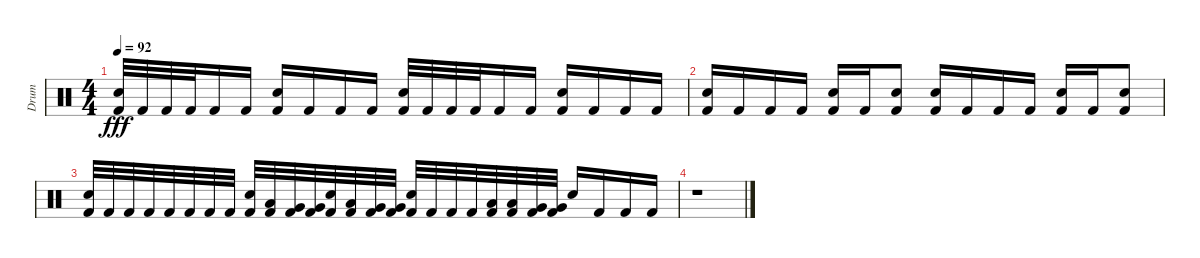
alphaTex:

\track ("Drum" "Drum") {instrument percussion}
\staff {score}
\articulation defaults
\ts (4 4)
\tempo 92
\clef neutral
\ks c
("Electric Snare (hit)" "Kick (hit) 2").32{dy fff} "Kick (hit) 2".32 "Kick (hit) 2".32 "Kick (hit) 2".32 "Kick (hit) 2".16 "Kick (hit) 2".16 ("Electric Snare (hit)" "Kick (hit) 2").16 "Kick (hit) 2".16 "Kick (hit) 2".16 "Kick (hit) 2".16 ("Electric Snare (hit)" "Kick (hit) 2").32 "Kick (hit) 2".32 "Kick (hit) 2".32 "Kick (hit) 2".32 "Kick (hit) 2".16 "Kick (hit) 2".16 ("Electric Snare (hit)" "Kick (hit) 2").16 "Kick (hit) 2".16 "Kick (hit) 2".16 "Kick (hit) 2".16 |
("Electric Snare (hit)" "Kick (hit) 2").16 "Kick (hit) 2".16 "Kick (hit) 2".16 "Kick (hit) 2".16 ("Electric Snare (hit)" "Kick (hit) 2").16 "Kick (hit) 2".16 ("Electric Snare (hit)" "Kick (hit) 2").8 ("Electric Snare (hit)" "Kick (hit) 2").16 "Kick (hit) 2".16 "Kick (hit) 2".16 "Kick (hit) 2".16 ("Electric Snare (hit)" "Kick (hit) 2").16 "Kick (hit) 2".16 ("Electric Snare (hit)" "Kick (hit) 2").8 |
("Electric Snare (hit)" "Kick (hit) 2").32 "Kick (hit) 2".32 "Kick (hit) 2".32 "Kick (hit) 2".32 "Kick (hit) 2".32 "Kick (hit) 2".32 "Kick (hit) 2".32 "Kick (hit) 2".32 ("Electric Snare (hit)" "Kick (hit) 2").32 ("Low Tom (hit)" "Kick (hit) 2").32 ("Very Low Tom (hit)" "Kick (hit) 2").32 ("Very Low Tom (hit)" "Kick (hit) 2").32 ("Electric Snare (hit)" "Kick (hit) 2").32 ("Low Tom (hit)" "Kick (hit) 2").32 ("Very Low Tom (hit)" "Kick (hit) 2").32 ("Very Low Tom (hit)" "Kick (hit) 2").32 ("Electric Snare (hit)" "Kick (hit) 2").32 "Kick (hit) 2".32 "Kick (hit) 2".32 "Kick (hit) 2".32 ("Low Tom (hit)" "Kick (hit) 2").32 ("Low Tom (hit)" "Kick (hit) 2").32 ("Very Low Tom (hit)" "Kick (hit) 2").32 ("Very Low Tom (hit)" "Kick (hit) 2").32 "Electric Snare (hit)".16 "Kick (hit) 2".16 "Kick (hit) 2".16 "Kick (hit) 2".16 |
r.1
